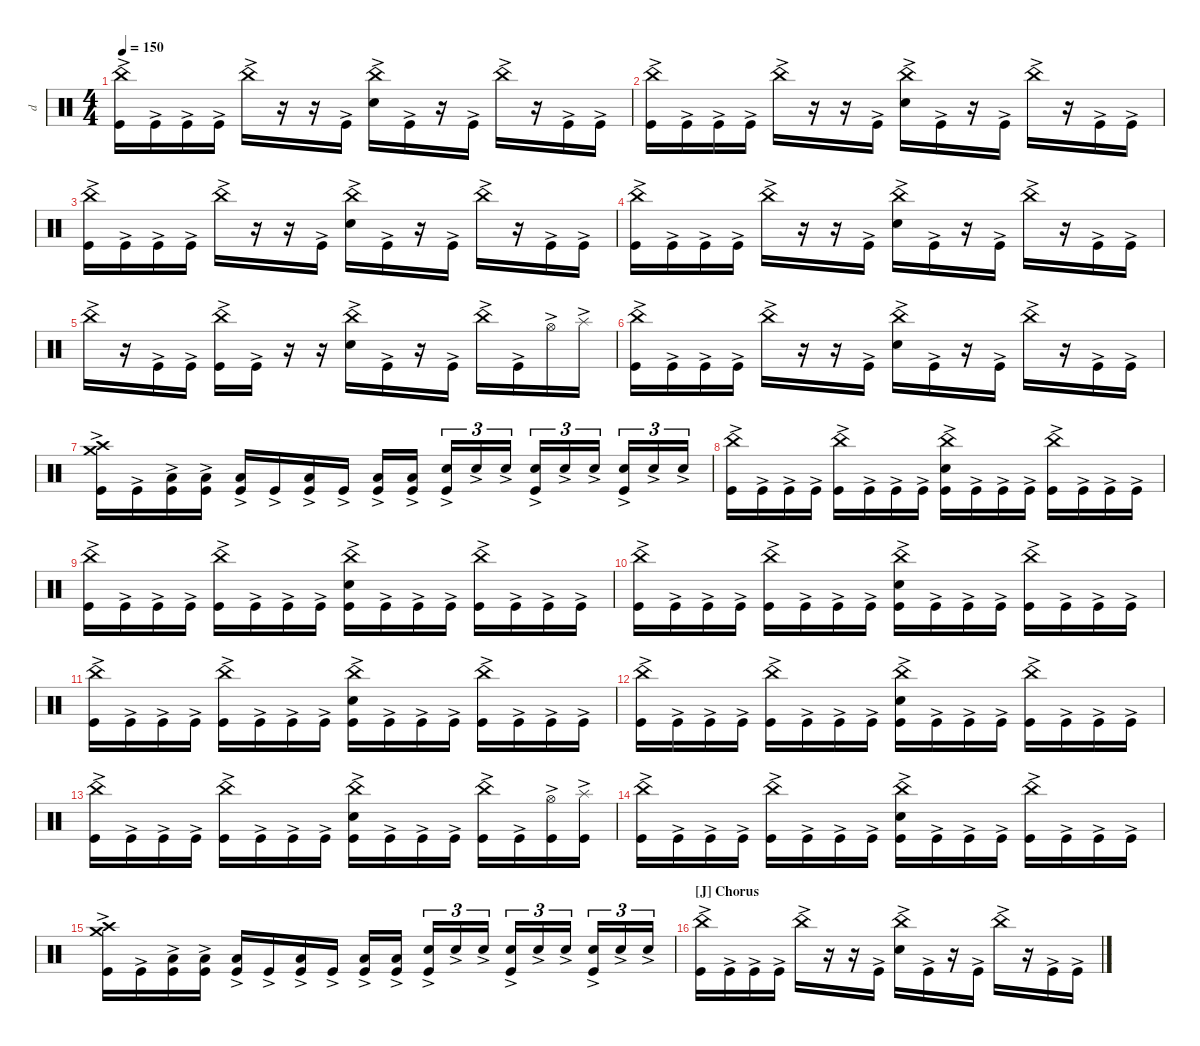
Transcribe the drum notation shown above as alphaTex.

\defaultSystemsLayout 4
\hideDynamics
\bracketExtendMode nobrackets
\otherSystemsTrackNameOrientation horizontal
\track ("Drumkit" "d") {instrument percussion}
\staff {score}
\articulation defaults
\ts (4 4)
\tempo 150
\clef neutral
\ks c
("China (hit)"{ac} "Kick (hit)"{ac}).16{dy mf beam Down} "Kick (hit)"{ac}.16{beam Down} "Kick (hit)"{ac}.16{beam Down} "Kick (hit)"{ac}.16{beam Down} "China (hit)"{ac}.16{beam Down} r.16{beam Down} r.16{beam Down} "Kick (hit)"{ac}.16{beam Down} ("China (hit)"{ac} "Snare (hit) 2"{ac}).16{beam Down} "Kick (hit)"{ac}.16{beam Down} r.16{beam Down} "Kick (hit)"{ac}.16{beam Down} "China (hit)"{ac}.16{beam Down} r.16{beam Down} "Kick (hit)"{ac}.16{beam Down} "Kick (hit)"{ac}.16{beam Down} |
("China (hit)"{ac} "Kick (hit)"{ac}).16{beam Down} "Kick (hit)"{ac}.16{beam Down} "Kick (hit)"{ac}.16{beam Down} "Kick (hit)"{ac}.16{beam Down} "China (hit)"{ac}.16{beam Down} r.16{beam Down} r.16{beam Down} "Kick (hit)"{ac}.16{beam Down} ("China (hit)"{ac} "Snare (hit) 2"{ac}).16{beam Down} "Kick (hit)"{ac}.16{beam Down} r.16{beam Down} "Kick (hit)"{ac}.16{beam Down} "China (hit)"{ac}.16{beam Down} r.16{beam Down} "Kick (hit)"{ac}.16{beam Down} "Kick (hit)"{ac}.16{beam Down} |
("China (hit)"{ac} "Kick (hit)"{ac}).16{beam Down} "Kick (hit)"{ac}.16{beam Down} "Kick (hit)"{ac}.16{beam Down} "Kick (hit)"{ac}.16{beam Down} "China (hit)"{ac}.16{beam Down} r.16{beam Down} r.16{beam Down} "Kick (hit)"{ac}.16{beam Down} ("China (hit)"{ac} "Snare (hit) 2"{ac}).16{beam Down} "Kick (hit)"{ac}.16{beam Down} r.16{beam Down} "Kick (hit)"{ac}.16{beam Down} "China (hit)"{ac}.16{beam Down} r.16{beam Down} "Kick (hit)"{ac}.16{beam Down} "Kick (hit)"{ac}.16{beam Down} |
("China (hit)"{ac} "Kick (hit)"{ac}).16{beam Down} "Kick (hit)"{ac}.16{beam Down} "Kick (hit)"{ac}.16{beam Down} "Kick (hit)"{ac}.16{beam Down} "China (hit)"{ac}.16{beam Down} r.16{beam Down} r.16{beam Down} "Kick (hit)"{ac}.16{beam Down} ("China (hit)"{ac} "Snare (hit) 2"{ac}).16{beam Down} "Kick (hit)"{ac}.16{beam Down} r.16{beam Down} "Kick (hit)"{ac}.16{beam Down} "China (hit)"{ac}.16{beam Down} r.16{beam Down} "Kick (hit)"{ac}.16{beam Down} "Kick (hit)"{ac}.16{beam Down} |
"China (hit)"{ac}.16{beam Down} r.16{beam Down} "Kick (hit)"{ac}.16{beam Down} "Kick (hit)"{ac}.16{beam Down} ("China (hit)"{ac} "Kick (hit)"{ac}).16{beam Down} "Kick (hit)"{ac}.16{beam Down} r.16{beam Down} r.16{beam Down} ("China (hit)"{ac} "Snare (hit) 2"{ac}).16{beam Down} "Kick (hit)"{ac}.16{beam Down} r.16{beam Down} "Kick (hit)"{ac}.16{beam Down} "China (hit)"{ac}.16{beam Down} "Kick (hit)"{ac}.16{beam Down} "Hi-Hat (open)"{ac}.16{beam Down} "Splash (hit)"{ac}.16{beam Down} |
("China (hit)"{ac} "Kick (hit)"{ac}).16{beam Down} "Kick (hit)"{ac}.16{beam Down} "Kick (hit)"{ac}.16{beam Down} "Kick (hit)"{ac}.16{beam Down} "China (hit)"{ac}.16{beam Down} r.16{beam Down} r.16{beam Down} "Kick (hit)"{ac}.16{beam Down} ("China (hit)"{ac} "Snare (hit) 2"{ac}).16{beam Down} "Kick (hit)"{ac}.16{beam Down} r.16{beam Down} "Kick (hit)"{ac}.16{beam Down} "China (hit)"{ac}.16{beam Down} r.16{beam Down} "Kick (hit)"{ac}.16{beam Down} "Kick (hit)"{ac}.16{beam Down} |
("Crash high (hit)"{ac} "Crash medium (hit)"{ac} "Kick (hit)"{ac}).16{beam Down} "Kick (hit)"{ac}.16{beam Down} ("Low Floor Tom (hit)"{ac} "Kick (hit)"{ac}).16{beam Down} ("Low Floor Tom (hit)"{ac} "Kick (hit)"{ac}).16{beam Down} ("Low Floor Tom (hit)"{ac} "Kick (hit)"{ac}).16{beam Up} "Kick (hit)"{ac}.16{beam Up} ("Low Floor Tom (hit)"{ac} "Kick (hit)"{ac}).16{beam Up} "Kick (hit)"{ac}.16{beam Up} ("Low Floor Tom (hit)"{ac} "Kick (hit)"{ac}).16{beam Up} ("Low Floor Tom (hit)"{ac} "Kick (hit)"{ac}).16{beam Up} ("Snare (hit) 2"{ac} "Kick (hit)"{ac}).16{tu (3 2) beam Up} "Snare (hit) 2"{ac}.16{tu (3 2) beam Up} "Snare (hit) 2"{ac}.16{tu (3 2) beam Up} ("Snare (hit) 2"{ac} "Kick (hit)"{ac}).16{tu (3 2) beam Up} "Snare (hit) 2"{ac}.16{tu (3 2) beam Up} "Snare (hit) 2"{ac}.16{tu (3 2) beam Up} ("Snare (hit) 2"{ac} "Kick (hit)"{ac}).16{tu (3 2) beam Up} "Snare (hit) 2"{ac}.16{tu (3 2) beam Up} "Snare (hit) 2"{ac}.16{tu (3 2) beam Up} |
("China (hit)"{ac} "Kick (hit)"{ac}).16{beam Down} "Kick (hit)"{ac}.16{beam Down} "Kick (hit)"{ac}.16{beam Down} "Kick (hit)"{ac}.16{beam Down} ("China (hit)"{ac} "Kick (hit)"{ac}).16{beam Down} "Kick (hit)"{ac}.16{beam Down} "Kick (hit)"{ac}.16{beam Down} "Kick (hit)"{ac}.16{beam Down} ("China (hit)"{ac} "Snare (hit) 2"{ac} "Kick (hit)"{ac}).16{beam Down} "Kick (hit)"{ac}.16{beam Down} "Kick (hit)"{ac}.16{beam Down} "Kick (hit)"{ac}.16{beam Down} ("China (hit)"{ac} "Kick (hit)"{ac}).16{beam Down} "Kick (hit)"{ac}.16{beam Down} "Kick (hit)"{ac}.16{beam Down} "Kick (hit)"{ac}.16{beam Down} |
("China (hit)"{ac} "Kick (hit)"{ac}).16{beam Down} "Kick (hit)"{ac}.16{beam Down} "Kick (hit)"{ac}.16{beam Down} "Kick (hit)"{ac}.16{beam Down} ("China (hit)"{ac} "Kick (hit)"{ac}).16{beam Down} "Kick (hit)"{ac}.16{beam Down} "Kick (hit)"{ac}.16{beam Down} "Kick (hit)"{ac}.16{beam Down} ("China (hit)"{ac} "Snare (hit) 2"{ac} "Kick (hit)"{ac}).16{beam Down} "Kick (hit)"{ac}.16{beam Down} "Kick (hit)"{ac}.16{beam Down} "Kick (hit)"{ac}.16{beam Down} ("China (hit)"{ac} "Kick (hit)"{ac}).16{beam Down} "Kick (hit)"{ac}.16{beam Down} "Kick (hit)"{ac}.16{beam Down} "Kick (hit)"{ac}.16{beam Down} |
("China (hit)"{ac} "Kick (hit)"{ac}).16{beam Down} "Kick (hit)"{ac}.16{beam Down} "Kick (hit)"{ac}.16{beam Down} "Kick (hit)"{ac}.16{beam Down} ("China (hit)"{ac} "Kick (hit)"{ac}).16{beam Down} "Kick (hit)"{ac}.16{beam Down} "Kick (hit)"{ac}.16{beam Down} "Kick (hit)"{ac}.16{beam Down} ("China (hit)"{ac} "Snare (hit) 2"{ac} "Kick (hit)"{ac}).16{beam Down} "Kick (hit)"{ac}.16{beam Down} "Kick (hit)"{ac}.16{beam Down} "Kick (hit)"{ac}.16{beam Down} ("China (hit)"{ac} "Kick (hit)"{ac}).16{beam Down} "Kick (hit)"{ac}.16{beam Down} "Kick (hit)"{ac}.16{beam Down} "Kick (hit)"{ac}.16{beam Down} |
("China (hit)"{ac} "Kick (hit)"{ac}).16{beam Down} "Kick (hit)"{ac}.16{beam Down} "Kick (hit)"{ac}.16{beam Down} "Kick (hit)"{ac}.16{beam Down} ("China (hit)"{ac} "Kick (hit)"{ac}).16{beam Down} "Kick (hit)"{ac}.16{beam Down} "Kick (hit)"{ac}.16{beam Down} "Kick (hit)"{ac}.16{beam Down} ("China (hit)"{ac} "Snare (hit) 2"{ac} "Kick (hit)"{ac}).16{beam Down} "Kick (hit)"{ac}.16{beam Down} "Kick (hit)"{ac}.16{beam Down} "Kick (hit)"{ac}.16{beam Down} ("China (hit)"{ac} "Kick (hit)"{ac}).16{beam Down} "Kick (hit)"{ac}.16{beam Down} "Kick (hit)"{ac}.16{beam Down} "Kick (hit)"{ac}.16{beam Down} |
("China (hit)"{ac} "Kick (hit)"{ac}).16{beam Down} "Kick (hit)"{ac}.16{beam Down} "Kick (hit)"{ac}.16{beam Down} "Kick (hit)"{ac}.16{beam Down} ("China (hit)"{ac} "Kick (hit)"{ac}).16{beam Down} "Kick (hit)"{ac}.16{beam Down} "Kick (hit)"{ac}.16{beam Down} "Kick (hit)"{ac}.16{beam Down} ("China (hit)"{ac} "Snare (hit) 2"{ac} "Kick (hit)"{ac}).16{beam Down} "Kick (hit)"{ac}.16{beam Down} "Kick (hit)"{ac}.16{beam Down} "Kick (hit)"{ac}.16{beam Down} ("China (hit)"{ac} "Kick (hit)"{ac}).16{beam Down} "Kick (hit)"{ac}.16{beam Down} "Kick (hit)"{ac}.16{beam Down} "Kick (hit)"{ac}.16{beam Down} |
("China (hit)"{ac} "Kick (hit)"{ac}).16{beam Down} "Kick (hit)"{ac}.16{beam Down} "Kick (hit)"{ac}.16{beam Down} "Kick (hit)"{ac}.16{beam Down} ("China (hit)"{ac} "Kick (hit)"{ac}).16{beam Down} "Kick (hit)"{ac}.16{beam Down} "Kick (hit)"{ac}.16{beam Down} "Kick (hit)"{ac}.16{beam Down} ("China (hit)"{ac} "Snare (hit) 2"{ac} "Kick (hit)"{ac}).16{beam Down} "Kick (hit)"{ac}.16{beam Down} "Kick (hit)"{ac}.16{beam Down} "Kick (hit)"{ac}.16{beam Down} ("China (hit)"{ac} "Kick (hit)"{ac}).16{beam Down} "Kick (hit)"{ac}.16{beam Down} ("Hi-Hat (open)"{ac} "Kick (hit)"{ac}).16{beam Down} ("Splash (hit)"{ac} "Kick (hit)"{ac}).16{beam Down} |
("China (hit)"{ac} "Kick (hit)"{ac}).16{beam Down} "Kick (hit)"{ac}.16{beam Down} "Kick (hit)"{ac}.16{beam Down} "Kick (hit)"{ac}.16{beam Down} ("China (hit)"{ac} "Kick (hit)"{ac}).16{beam Down} "Kick (hit)"{ac}.16{beam Down} "Kick (hit)"{ac}.16{beam Down} "Kick (hit)"{ac}.16{beam Down} ("China (hit)"{ac} "Snare (hit) 2"{ac} "Kick (hit)"{ac}).16{beam Down} "Kick (hit)"{ac}.16{beam Down} "Kick (hit)"{ac}.16{beam Down} "Kick (hit)"{ac}.16{beam Down} ("China (hit)"{ac} "Kick (hit)"{ac}).16{beam Down} "Kick (hit)"{ac}.16{beam Down} "Kick (hit)"{ac}.16{beam Down} "Kick (hit)"{ac}.16{beam Down} |
("Crash high (hit)"{ac} "Crash medium (hit)"{ac} "Kick (hit)"{ac}).16{beam Down} "Kick (hit)"{ac}.16{beam Down} ("Low Floor Tom (hit)"{ac} "Kick (hit)"{ac}).16{beam Down} ("Low Floor Tom (hit)"{ac} "Kick (hit)"{ac}).16{beam Down} ("Low Floor Tom (hit)"{ac} "Kick (hit)"{ac}).16{beam Up} "Kick (hit)"{ac}.16{beam Up} ("Low Floor Tom (hit)"{ac} "Kick (hit)"{ac}).16{beam Up} "Kick (hit)"{ac}.16{beam Up} ("Low Floor Tom (hit)"{ac} "Kick (hit)"{ac}).16{beam Up} ("Low Floor Tom (hit)"{ac} "Kick (hit)"{ac}).16{beam Up} ("Snare (hit) 2"{ac} "Kick (hit)"{ac}).16{tu (3 2) beam Up} "Snare (hit) 2"{ac}.16{tu (3 2) beam Up} "Snare (hit) 2"{ac}.16{tu (3 2) beam Up} ("Snare (hit) 2"{ac} "Kick (hit)"{ac}).16{tu (3 2) beam Up} "Snare (hit) 2"{ac}.16{tu (3 2) beam Up} "Snare (hit) 2"{ac}.16{tu (3 2) beam Up} ("Snare (hit) 2"{ac} "Kick (hit)"{ac}).16{tu (3 2) beam Up} "Snare (hit) 2"{ac}.16{tu (3 2) beam Up} "Snare (hit) 2"{ac}.16{tu (3 2) beam Up} |
\section ("J" "Chorus")
("China (hit)"{ac} "Kick (hit)"{ac}).16{beam Down} "Kick (hit)"{ac}.16{beam Down} "Kick (hit)"{ac}.16{beam Down} "Kick (hit)"{ac}.16{beam Down} "China (hit)"{ac}.16{beam Down} r.16{beam Down} r.16{beam Down} "Kick (hit)"{ac}.16{beam Down} ("China (hit)"{ac} "Snare (hit) 2"{ac}).16{beam Down} "Kick (hit)"{ac}.16{beam Down} r.16{beam Down} "Kick (hit)"{ac}.16{beam Down} "China (hit)"{ac}.16{beam Down} r.16{beam Down} "Kick (hit)"{ac}.16{beam Down} "Kick (hit)"{ac}.16{beam Down}
